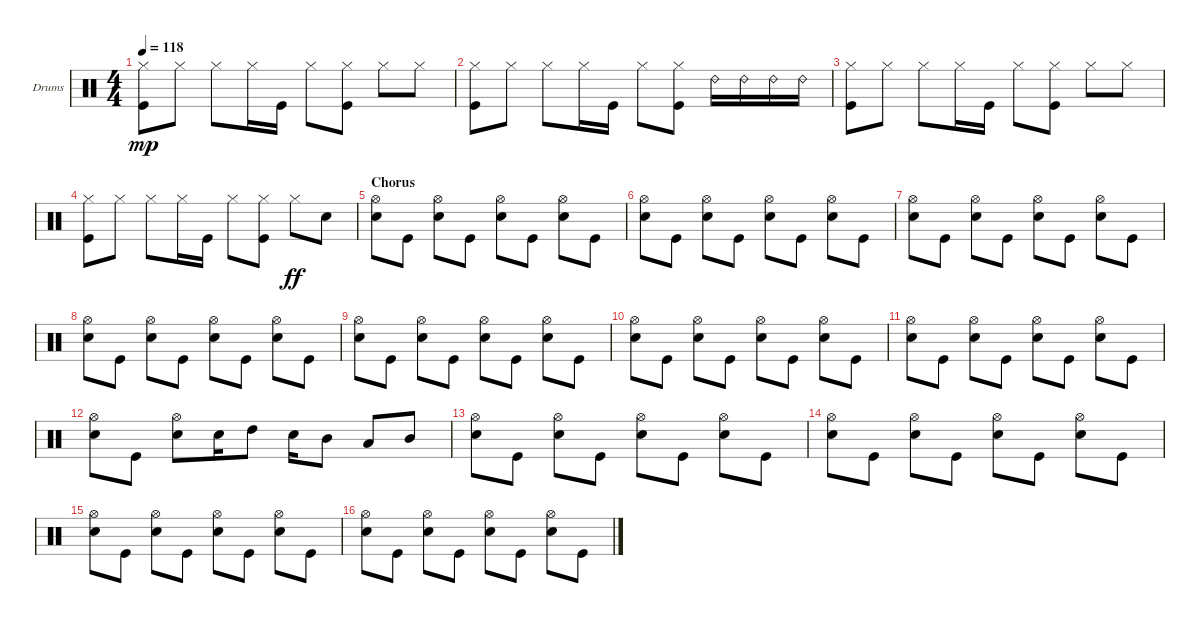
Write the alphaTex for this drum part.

\defaultSystemsLayout 4
\bracketExtendMode groupsimilarinstruments
\firstSystemTrackNameOrientation horizontal
\otherSystemsTrackNameOrientation horizontal
\track ("Drumkit" "Drums") {instrument percussion}
\staff {score}
\articulation defaults
\ts (4 4)
\tempo 118
\clef neutral
\ks c
("Hi-Hat (closed)" "Kick (hit)").8{dy mp} "Hi-Hat (closed)".8 "Hi-Hat (closed)".8 "Hi-Hat (closed)".16 "Kick (hit)".16 "Hi-Hat (closed)".8 ("Kick (hit)" "Hi-Hat (closed)").8 "Hi-Hat (closed)".8 "Hi-Hat (closed)".8 |
("Hi-Hat (closed)" "Kick (hit)").8 "Hi-Hat (closed)".8 "Hi-Hat (closed)".8 "Hi-Hat (closed)".16 "Kick (hit)".16 "Hi-Hat (closed)".8 ("Kick (hit)" "Hi-Hat (closed)").8 "Ride (bell) 2".16 "Ride (bell) 2".16 "Ride (bell) 2".16 "Ride (bell) 2".16 |
("Hi-Hat (closed)" "Kick (hit)").8 "Hi-Hat (closed)".8 "Hi-Hat (closed)".8 "Hi-Hat (closed)".16 "Kick (hit)".16 "Hi-Hat (closed)".8 ("Kick (hit)" "Hi-Hat (closed)").8 "Hi-Hat (closed)".8 "Hi-Hat (closed)".8 |
("Hi-Hat (closed)" "Kick (hit)").8 "Hi-Hat (closed)".8 "Hi-Hat (closed)".8 "Hi-Hat (closed)".16 "Kick (hit)".16 "Hi-Hat (closed)".8 ("Kick (hit)" "Hi-Hat (closed)").8 "Hi-Hat (closed)".8{dy ff} "Snare (hit) 2".8 |
\section ("" "Chorus")
("Snare (hit) 2" "Hi-Hat (open)").8 "Kick (hit)".8 ("Snare (hit) 2" "Hi-Hat (open)").8 "Kick (hit)".8 ("Hi-Hat (open)" "Snare (hit) 2").8 "Kick (hit)".8 ("Hi-Hat (open)" "Snare (hit) 2").8 "Kick (hit)".8 |
("Snare (hit) 2" "Hi-Hat (open)").8 "Kick (hit)".8 ("Snare (hit) 2" "Hi-Hat (open)").8 "Kick (hit)".8 ("Hi-Hat (open)" "Snare (hit) 2").8 "Kick (hit)".8 ("Hi-Hat (open)" "Snare (hit) 2").8 "Kick (hit)".8 |
("Snare (hit) 2" "Hi-Hat (open)").8 "Kick (hit)".8 ("Snare (hit) 2" "Hi-Hat (open)").8 "Kick (hit)".8 ("Hi-Hat (open)" "Snare (hit) 2").8 "Kick (hit)".8 ("Hi-Hat (open)" "Snare (hit) 2").8 "Kick (hit)".8 |
("Snare (hit) 2" "Hi-Hat (open)").8 "Kick (hit)".8 ("Snare (hit) 2" "Hi-Hat (open)").8 "Kick (hit)".8 ("Hi-Hat (open)" "Snare (hit) 2").8 "Kick (hit)".8 ("Hi-Hat (open)" "Snare (hit) 2").8 "Kick (hit)".8 |
("Snare (hit) 2" "Hi-Hat (open)").8 "Kick (hit)".8 ("Snare (hit) 2" "Hi-Hat (open)").8 "Kick (hit)".8 ("Hi-Hat (open)" "Snare (hit) 2").8 "Kick (hit)".8 ("Hi-Hat (open)" "Snare (hit) 2").8 "Kick (hit)".8 |
("Snare (hit) 2" "Hi-Hat (open)").8 "Kick (hit)".8 ("Snare (hit) 2" "Hi-Hat (open)").8 "Kick (hit)".8 ("Hi-Hat (open)" "Snare (hit) 2").8 "Kick (hit)".8 ("Hi-Hat (open)" "Snare (hit) 2").8 "Kick (hit)".8 |
("Snare (hit) 2" "Hi-Hat (open)").8 "Kick (hit)".8 ("Snare (hit) 2" "Hi-Hat (open)").8 "Kick (hit)".8 ("Hi-Hat (open)" "Snare (hit) 2").8 "Kick (hit)".8 ("Hi-Hat (open)" "Snare (hit) 2").8 "Kick (hit)".8 |
("Snare (hit) 2" "Hi-Hat (open)").8 "Kick (hit)".8 ("Snare (hit) 2" "Hi-Hat (open)").8 "Snare (hit) 2".16 "High Tom (hit)".8 "Snare (hit) 2".16 "Mid Tom (hit)".8 "Low Tom (hit)".8 "Mid Tom (hit)".8 |
("Snare (hit) 2" "Hi-Hat (open)").8 "Kick (hit)".8 ("Snare (hit) 2" "Hi-Hat (open)").8 "Kick (hit)".8 ("Hi-Hat (open)" "Snare (hit) 2").8 "Kick (hit)".8 ("Hi-Hat (open)" "Snare (hit) 2").8 "Kick (hit)".8 |
("Snare (hit) 2" "Hi-Hat (open)").8 "Kick (hit)".8 ("Snare (hit) 2" "Hi-Hat (open)").8 "Kick (hit)".8 ("Hi-Hat (open)" "Snare (hit) 2").8 "Kick (hit)".8 ("Hi-Hat (open)" "Snare (hit) 2").8 "Kick (hit)".8 |
("Snare (hit) 2" "Hi-Hat (open)").8 "Kick (hit)".8 ("Snare (hit) 2" "Hi-Hat (open)").8 "Kick (hit)".8 ("Hi-Hat (open)" "Snare (hit) 2").8 "Kick (hit)".8 ("Hi-Hat (open)" "Snare (hit) 2").8 "Kick (hit)".8 |
("Snare (hit) 2" "Hi-Hat (open)").8 "Kick (hit)".8 ("Snare (hit) 2" "Hi-Hat (open)").8 "Kick (hit)".8 ("Hi-Hat (open)" "Snare (hit) 2").8 "Kick (hit)".8 ("Hi-Hat (open)" "Snare (hit) 2").8 "Kick (hit)".8
